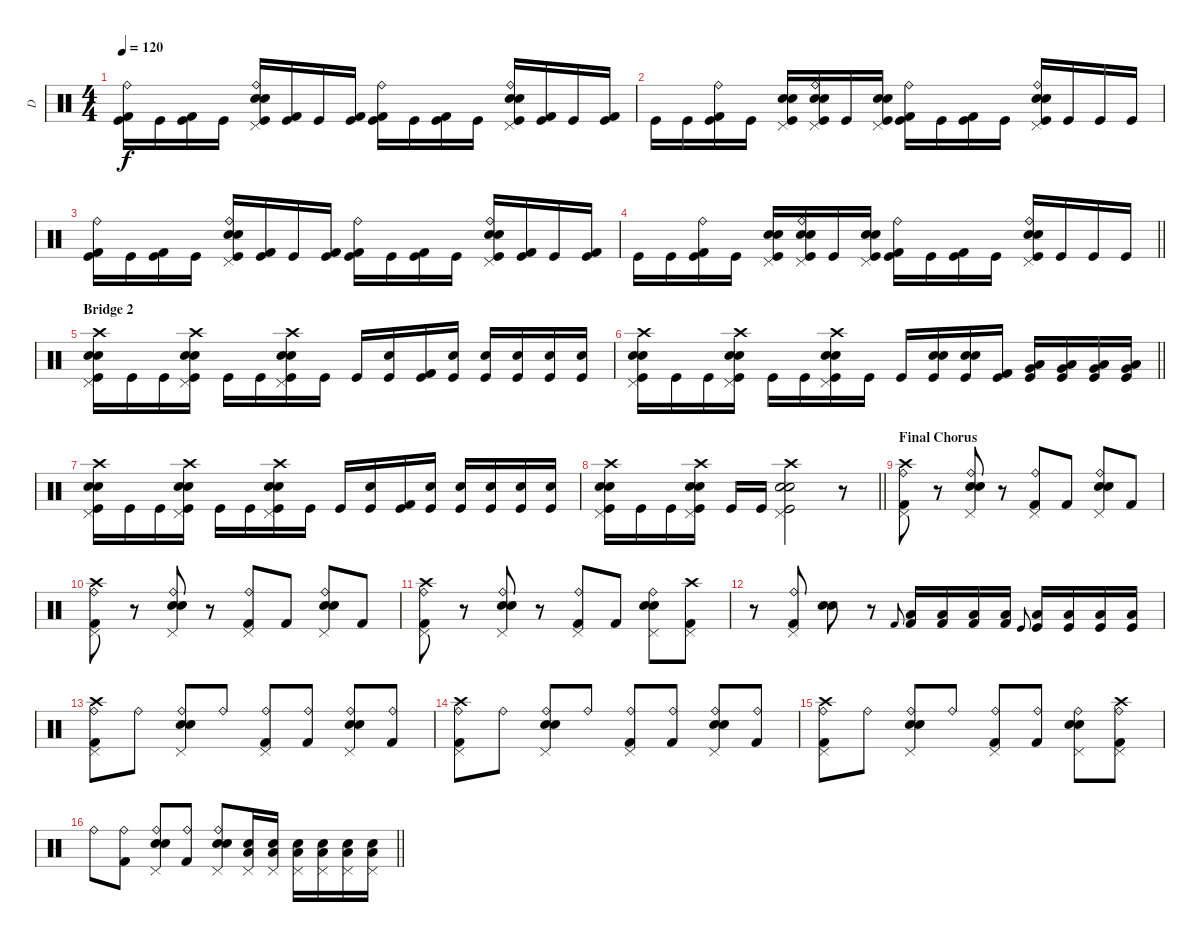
\track ("D" "D") {instrument percussion}
\staff {score}
\articulation defaults
\ts (4 4)
\tempo 120
\clef neutral
\ks c
("Kick (hit) 2" "Kick (hit)" "Ride (bell)").16{dy f} "Kick (hit)".16 ("Kick (hit) 2" "Kick (hit)").16 "Kick (hit)".16 ("Electric Snare (hit)" "Electric Snare (hit)" "Pedal Hi-Hat (hit)" "Kick (hit)" "Ride (bell)").16 ("Kick (hit) 2" "Kick (hit)").16 "Kick (hit)".16 ("Kick (hit) 2" "Kick (hit)").16 ("Kick (hit) 2" "Kick (hit)" "Ride (bell)").16 "Kick (hit)".16 ("Kick (hit) 2" "Kick (hit)").16 "Kick (hit)".16 ("Electric Snare (hit)" "Electric Snare (hit)" "Pedal Hi-Hat (hit)" "Kick (hit)" "Ride (bell)").16 ("Kick (hit) 2" "Kick (hit)").16 "Kick (hit)".16 ("Kick (hit) 2" "Kick (hit)").16 |
"Kick (hit)".16 "Kick (hit)".16 ("Kick (hit) 2" "Kick (hit)" "Ride (bell)").16 "Kick (hit)".16 ("Electric Snare (hit)" "Electric Snare (hit)" "Pedal Hi-Hat (hit)" "Kick (hit)").16 ("Electric Snare (hit)" "Electric Snare (hit)" "Pedal Hi-Hat (hit)" "Kick (hit)" "Ride (bell)").16 "Kick (hit)".16 ("Electric Snare (hit)" "Electric Snare (hit)" "Pedal Hi-Hat (hit)" "Kick (hit)").16 ("Kick (hit) 2" "Kick (hit)" "Ride (bell)").16 "Kick (hit)".16 ("Kick (hit) 2" "Kick (hit)").16 "Kick (hit)".16 ("Electric Snare (hit)" "Electric Snare (hit)" "Pedal Hi-Hat (hit)" "Kick (hit)" "Ride (bell)").16 "Kick (hit)".16 "Kick (hit)".16 "Kick (hit)".16 |
("Kick (hit) 2" "Kick (hit)" "Ride (bell)").16 "Kick (hit)".16 ("Kick (hit) 2" "Kick (hit)").16 "Kick (hit)".16 ("Electric Snare (hit)" "Electric Snare (hit)" "Pedal Hi-Hat (hit)" "Kick (hit)" "Ride (bell)").16 ("Kick (hit) 2" "Kick (hit)").16 "Kick (hit)".16 ("Kick (hit) 2" "Kick (hit)").16 ("Kick (hit) 2" "Kick (hit)" "Ride (bell)").16 "Kick (hit)".16 ("Kick (hit) 2" "Kick (hit)").16 "Kick (hit)".16 ("Electric Snare (hit)" "Electric Snare (hit)" "Pedal Hi-Hat (hit)" "Kick (hit)" "Ride (bell)").16 ("Kick (hit) 2" "Kick (hit)").16 "Kick (hit)".16 ("Kick (hit) 2" "Kick (hit)").16 |
\barLineRight lightlight "Kick (hit)".16 "Kick (hit)".16
("Kick (hit) 2" "Kick (hit)" "Ride (bell)").16 "Kick (hit)".16 ("Electric Snare (hit)" "Electric Snare (hit)" "Pedal Hi-Hat (hit)" "Kick (hit)").16 ("Electric Snare (hit)" "Electric Snare (hit)" "Pedal Hi-Hat (hit)" "Kick (hit)" "Ride (bell)").16 "Kick (hit)".16 ("Electric Snare (hit)" "Electric Snare (hit)" "Pedal Hi-Hat (hit)" "Kick (hit)").16 ("Kick (hit) 2" "Kick (hit)" "Ride (bell)").16 "Kick (hit)".16 ("Kick (hit) 2" "Kick (hit)").16 "Kick (hit)".16 ("Electric Snare (hit)" "Electric Snare (hit)" "Pedal Hi-Hat (hit)" "Kick (hit)" "Ride (bell)").16 "Kick (hit)".16 "Kick (hit)".16 "Kick (hit)".16 |
\section ("" "Bridge 2")
("Crash high (hit)" "Electric Snare (hit)" "Electric Snare (hit)" "Kick (hit)" "Pedal Hi-Hat (hit)").16 "Kick (hit)".16 "Kick (hit)".16 ("Crash high (hit)" "Electric Snare (hit)" "Electric Snare (hit)" "Kick (hit)" "Pedal Hi-Hat (hit)").16 "Kick (hit)".16 "Kick (hit)".16 ("Crash high (hit)" "Electric Snare (hit)" "Electric Snare (hit)" "Kick (hit)" "Pedal Hi-Hat (hit)").16 "Kick (hit)".16 "Kick (hit)".16 ("Electric Snare (hit)" "Kick (hit)").16 ("Kick (hit) 2" "Kick (hit)").16 ("Electric Snare (hit)" "Kick (hit)").16 ("Electric Snare (hit)" "Kick (hit)").16 ("Electric Snare (hit)" "Kick (hit)").16 ("Electric Snare (hit)" "Kick (hit)").16 ("Electric Snare (hit)" "Kick (hit)").16 |
\barLineRight lightlight
("Crash high (hit)" "Electric Snare (hit)" "Electric Snare (hit)" "Kick (hit)" "Pedal Hi-Hat (hit)").16 "Kick (hit)".16 "Kick (hit)".16 ("Crash high (hit)" "Electric Snare (hit)" "Electric Snare (hit)" "Kick (hit)" "Pedal Hi-Hat (hit)").16 "Kick (hit)".16 "Kick (hit)".16 ("Crash high (hit)" "Electric Snare (hit)" "Electric Snare (hit)" "Kick (hit)" "Pedal Hi-Hat (hit)").16 "Kick (hit)".16 "Kick (hit)".16 ("Electric Snare (hit)" "Electric Snare (hit)" "Kick (hit)").16 ("Electric Snare (hit)" "Electric Snare (hit)" "Kick (hit)").16 ("Kick (hit) 2" "Kick (hit)").16 ("Very Low Tom (hit)" "Low Floor Tom (hit)" "Kick (hit)").16 ("Very Low Tom (hit)" "Low Floor Tom (hit)" "Kick (hit)").16 ("Very Low Tom (hit)" "Low Floor Tom (hit)" "Kick (hit)").16 ("Very Low Tom (hit)" "Low Floor Tom (hit)" "Kick (hit)").16 |
("Crash high (hit)" "Electric Snare (hit)" "Electric Snare (hit)" "Kick (hit)" "Pedal Hi-Hat (hit)").16 "Kick (hit)".16 "Kick (hit)".16 ("Crash high (hit)" "Electric Snare (hit)" "Electric Snare (hit)" "Kick (hit)" "Pedal Hi-Hat (hit)").16 "Kick (hit)".16 "Kick (hit)".16 ("Crash high (hit)" "Electric Snare (hit)" "Electric Snare (hit)" "Kick (hit)" "Pedal Hi-Hat (hit)").16 "Kick (hit)".16 "Kick (hit)".16 ("Electric Snare (hit)" "Kick (hit)").16 ("Kick (hit) 2" "Kick (hit)").16 ("Electric Snare (hit)" "Kick (hit)").16 ("Electric Snare (hit)" "Kick (hit)").16 ("Electric Snare (hit)" "Kick (hit)").16 ("Electric Snare (hit)" "Kick (hit)").16 ("Electric Snare (hit)" "Kick (hit)").16 |
\barLineRight lightlight
("Crash high (hit)" "Electric Snare (hit)" "Electric Snare (hit)" "Kick (hit)" "Pedal Hi-Hat (hit)").16 "Kick (hit)".16 "Kick (hit)".16 ("Crash high (hit)" "Electric Snare (hit)" "Electric Snare (hit)" "Kick (hit)" "Pedal Hi-Hat (hit)").16 "Kick (hit)".16 "Kick (hit)".16 ("Crash high (hit)" "Electric Snare (hit)" "Electric Snare (hit)" "Kick (hit)" "Pedal Hi-Hat (hit)").2 r.8 |
\section ("" "Final Chorus")
("Crash high (hit)" "Kick (hit) 2" "Ride (bell)" "Pedal Hi-Hat (hit)").8 r.8 ("Electric Snare (hit)" "Electric Snare (hit)" "Ride (bell)" "Pedal Hi-Hat (hit)").8 r.8 ("Kick (hit) 2" "Ride (bell)" "Pedal Hi-Hat (hit)").8 "Kick (hit) 2".8 ("Electric Snare (hit)" "Electric Snare (hit)" "Ride (bell)" "Pedal Hi-Hat (hit)").8 "Kick (hit) 2".8 |
("Crash high (hit)" "Kick (hit) 2" "Ride (bell)" "Pedal Hi-Hat (hit)").8 r.8 ("Electric Snare (hit)" "Electric Snare (hit)" "Ride (bell)" "Pedal Hi-Hat (hit)").8 r.8 ("Kick (hit) 2" "Ride (bell)" "Pedal Hi-Hat (hit)").8 "Kick (hit) 2".8 ("Electric Snare (hit)" "Electric Snare (hit)" "Ride (bell)" "Pedal Hi-Hat (hit)").8 "Kick (hit) 2".8 |
("Crash high (hit)" "Kick (hit) 2" "Ride (bell)" "Pedal Hi-Hat (hit)").8 r.8 ("Electric Snare (hit)" "Electric Snare (hit)" "Ride (bell)" "Pedal Hi-Hat (hit)").8 r.8 ("Kick (hit) 2" "Ride (bell)" "Pedal Hi-Hat (hit)").8 "Kick (hit) 2".8 ("Electric Snare (hit)" "Electric Snare (hit)" "Ride (bell)" "Pedal Hi-Hat (hit)").8 ("Crash high (hit)" "Kick (hit) 2" "Pedal Hi-Hat (hit)").8 |
r.8 ("Kick (hit) 2" "Ride (bell)" "Pedal Hi-Hat (hit)").8 ("Electric Snare (hit)" "Electric Snare (hit)").8 r.8 "Kick (hit) 2".8{gr onbeat} ("Kick (hit) 2" "Low Floor Tom (hit)").16 ("Kick (hit) 2" "Low Floor Tom (hit)").16 ("Kick (hit) 2" "Low Floor Tom (hit)").16 ("Kick (hit) 2" "Low Floor Tom (hit)").16 "Kick (hit)".8{gr onbeat} ("Kick (hit)" "Low Floor Tom (hit)").16 ("Kick (hit)" "Low Floor Tom (hit)").16 ("Kick (hit)" "Low Floor Tom (hit)").16 ("Kick (hit)" "Low Floor Tom (hit)").16 |
("Crash high (hit)" "Kick (hit) 2" "Ride (bell)" "Pedal Hi-Hat (hit)").8 "Ride (bell)".8 ("Electric Snare (hit)" "Electric Snare (hit)" "Ride (bell)" "Pedal Hi-Hat (hit)").8 "Ride (bell)".8 ("Kick (hit) 2" "Ride (bell)" "Pedal Hi-Hat (hit)").8 ("Kick (hit) 2" "Ride (bell)").8 ("Electric Snare (hit)" "Electric Snare (hit)" "Ride (bell)" "Pedal Hi-Hat (hit)").8 ("Kick (hit) 2" "Ride (bell)").8 |
("Crash high (hit)" "Kick (hit) 2" "Ride (bell)" "Pedal Hi-Hat (hit)").8 "Ride (bell)".8 ("Electric Snare (hit)" "Electric Snare (hit)" "Ride (bell)" "Pedal Hi-Hat (hit)").8 "Ride (bell)".8 ("Kick (hit) 2" "Ride (bell)" "Pedal Hi-Hat (hit)").8 ("Kick (hit) 2" "Ride (bell)").8 ("Electric Snare (hit)" "Electric Snare (hit)" "Ride (bell)" "Pedal Hi-Hat (hit)").8 ("Kick (hit) 2" "Ride (bell)").8 |
("Crash high (hit)" "Kick (hit) 2" "Ride (bell)" "Pedal Hi-Hat (hit)").8 "Ride (bell)".8 ("Electric Snare (hit)" "Electric Snare (hit)" "Ride (bell)" "Pedal Hi-Hat (hit)").8 "Ride (bell)".8 ("Kick (hit) 2" "Ride (bell)" "Pedal Hi-Hat (hit)").8 ("Kick (hit) 2" "Ride (bell)").8 ("Electric Snare (hit)" "Electric Snare (hit)" "Ride (bell)" "Pedal Hi-Hat (hit)").8 ("Crash high (hit)" "Kick (hit) 2" "Ride (bell)" "Pedal Hi-Hat (hit)").8 |
\barLineRight lightlight "Ride (bell)".8
("Kick (hit) 2" "Ride (bell)").8 ("Electric Snare (hit)" "Electric Snare (hit)" "Pedal Hi-Hat (hit)" "Ride (bell)").8 ("Kick (hit) 2" "Ride (bell)").8 ("Electric Snare (hit)" "Electric Snare (hit)" "Pedal Hi-Hat (hit)" "Ride (bell)").8 ("Electric Snare (hit)" "Low Floor Tom (hit)" "Pedal Hi-Hat (hit)").16 ("Electric Snare (hit)" "Low Floor Tom (hit)" "Pedal Hi-Hat (hit)").16 ("Electric Snare (hit)" "Low Floor Tom (hit)" "Pedal Hi-Hat (hit)").16 ("Electric Snare (hit)" "Low Floor Tom (hit)" "Pedal Hi-Hat (hit)").16 ("Electric Snare (hit)" "Low Floor Tom (hit)" "Pedal Hi-Hat (hit)").16 ("Electric Snare (hit)" "Low Floor Tom (hit)" "Pedal Hi-Hat (hit)").16
